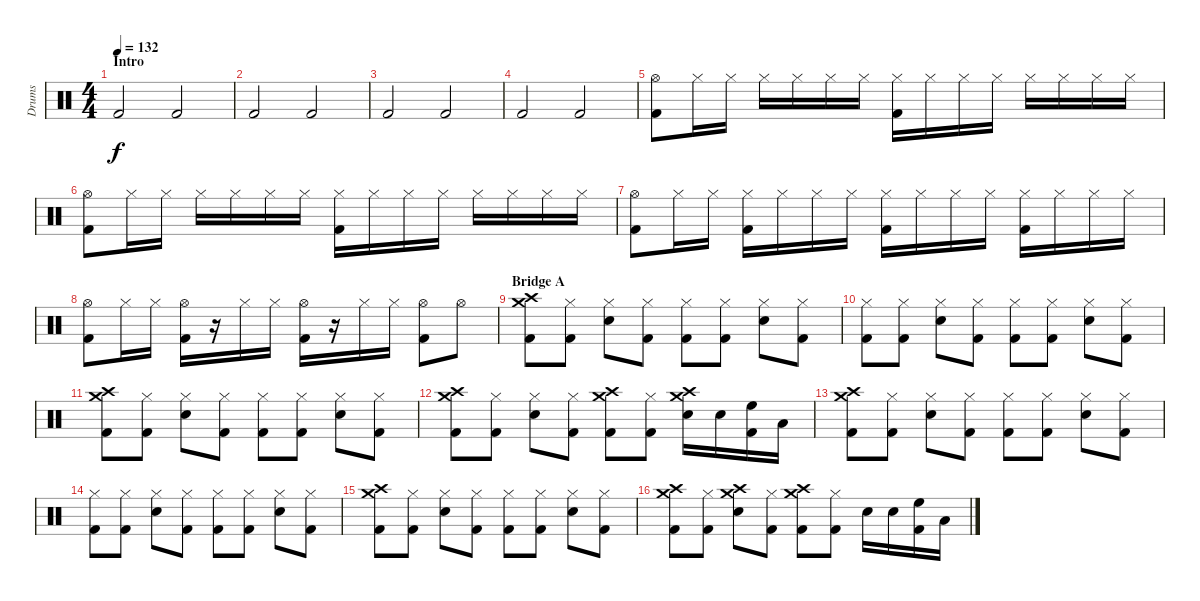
\track ("Drums" "Drums") {instrument percussion}
\staff {score}
\articulation defaults
\ts (4 4)
\section ("" "Intro")
\tempo 132
\clef neutral
\ks c "Kick (hit) 2".2{dy f} "Kick (hit) 2".2
|
"Kick (hit) 2".2 "Kick (hit) 2".2 |
"Kick (hit) 2".2 "Kick (hit) 2".2 |
"Kick (hit) 2".2 "Kick (hit) 2".2 |
("Hi-Hat (open)" "Kick (hit) 2").8 "Hi-Hat (closed)".16 "Hi-Hat (closed)".16 "Hi-Hat (closed)".16 "Hi-Hat (closed)".16 "Hi-Hat (closed)".16 "Hi-Hat (closed)".16 ("Hi-Hat (closed)" "Kick (hit) 2").16 "Hi-Hat (closed)".16 "Hi-Hat (closed)".16 "Hi-Hat (closed)".16 "Hi-Hat (closed)".16 "Hi-Hat (closed)".16 "Hi-Hat (closed)".16 "Hi-Hat (closed)".16 |
("Hi-Hat (open)" "Kick (hit) 2").8 "Hi-Hat (closed)".16 "Hi-Hat (closed)".16 "Hi-Hat (closed)".16 "Hi-Hat (closed)".16 "Hi-Hat (closed)".16 "Hi-Hat (closed)".16 ("Hi-Hat (closed)" "Kick (hit) 2").16 "Hi-Hat (closed)".16 "Hi-Hat (closed)".16 "Hi-Hat (closed)".16 "Hi-Hat (closed)".16 "Hi-Hat (closed)".16 "Hi-Hat (closed)".16 "Hi-Hat (closed)".16 |
("Hi-Hat (open)" "Kick (hit) 2").8 "Hi-Hat (closed)".16 "Hi-Hat (closed)".16 ("Hi-Hat (closed)" "Kick (hit) 2").16 "Hi-Hat (closed)".16 "Hi-Hat (closed)".16 "Hi-Hat (closed)".16 ("Hi-Hat (closed)" "Kick (hit) 2").16 "Hi-Hat (closed)".16 "Hi-Hat (closed)".16 "Hi-Hat (closed)".16 ("Hi-Hat (closed)" "Kick (hit) 2").16 "Hi-Hat (closed)".16 "Hi-Hat (closed)".16 "Hi-Hat (closed)".16 |
("Hi-Hat (open)" "Kick (hit) 2").8 "Hi-Hat (closed)".16 "Hi-Hat (closed)".16 ("Hi-Hat (open)" "Kick (hit) 2").16 r.16 "Hi-Hat (closed)".16 "Hi-Hat (closed)".16 ("Hi-Hat (open)" "Kick (hit) 2").16 r.16 "Hi-Hat (closed)".16 "Hi-Hat (closed)".16 ("Hi-Hat (open)" "Kick (hit) 2").8 "Hi-Hat (open)".8 |
\section ("" "Bridge A")
("Crash medium (hit)" "Crash high (hit)" "Kick (hit) 2").8 ("Hi-Hat (closed)" "Kick (hit) 2").8 ("Hi-Hat (closed)" "Electric Snare (hit)").8 ("Hi-Hat (closed)" "Kick (hit) 2").8 ("Hi-Hat (closed)" "Kick (hit) 2").8 ("Hi-Hat (closed)" "Kick (hit) 2").8 ("Hi-Hat (closed)" "Electric Snare (hit)").8 ("Hi-Hat (closed)" "Kick (hit) 2").8 |
("Hi-Hat (closed)" "Kick (hit) 2").8 ("Hi-Hat (closed)" "Kick (hit) 2").8 ("Hi-Hat (closed)" "Electric Snare (hit)").8 ("Hi-Hat (closed)" "Kick (hit) 2").8 ("Hi-Hat (closed)" "Kick (hit) 2").8 ("Hi-Hat (closed)" "Kick (hit) 2").8 ("Hi-Hat (closed)" "Electric Snare (hit)").8 ("Hi-Hat (closed)" "Kick (hit) 2").8 |
("Crash medium (hit)" "Crash high (hit)" "Kick (hit) 2").8 ("Hi-Hat (closed)" "Kick (hit) 2").8 ("Hi-Hat (closed)" "Electric Snare (hit)").8 ("Hi-Hat (closed)" "Kick (hit) 2").8 ("Hi-Hat (closed)" "Kick (hit) 2").8 ("Hi-Hat (closed)" "Kick (hit) 2").8 ("Hi-Hat (closed)" "Electric Snare (hit)").8 ("Hi-Hat (closed)" "Kick (hit) 2").8 |
("Crash medium (hit)" "Crash high (hit)" "Kick (hit) 2").8 ("Hi-Hat (closed)" "Kick (hit) 2").8 ("Hi-Hat (closed)" "Electric Snare (hit)").8 ("Hi-Hat (closed)" "Kick (hit) 2").8 ("Crash medium (hit)" "Crash high (hit)" "Kick (hit) 2").8 ("Hi-Hat (closed)" "Kick (hit) 2").8 ("Crash medium (hit)" "Crash high (hit)" "Electric Snare (hit)").16 "Electric Snare (hit)".16 ("High Floor Tom (hit)" "Kick (hit) 2").16 "Low Tom (hit)".16 |
("Crash medium (hit)" "Crash high (hit)" "Kick (hit) 2").8 ("Hi-Hat (closed)" "Kick (hit) 2").8 ("Hi-Hat (closed)" "Electric Snare (hit)").8 ("Hi-Hat (closed)" "Kick (hit) 2").8 ("Hi-Hat (closed)" "Kick (hit) 2").8 ("Hi-Hat (closed)" "Kick (hit) 2").8 ("Hi-Hat (closed)" "Electric Snare (hit)").8 ("Hi-Hat (closed)" "Kick (hit) 2").8 |
("Hi-Hat (closed)" "Kick (hit) 2").8 ("Hi-Hat (closed)" "Kick (hit) 2").8 ("Hi-Hat (closed)" "Electric Snare (hit)").8 ("Hi-Hat (closed)" "Kick (hit) 2").8 ("Hi-Hat (closed)" "Kick (hit) 2").8 ("Hi-Hat (closed)" "Kick (hit) 2").8 ("Hi-Hat (closed)" "Electric Snare (hit)").8 ("Hi-Hat (closed)" "Kick (hit) 2").8 |
("Crash medium (hit)" "Crash high (hit)" "Kick (hit) 2").8 ("Hi-Hat (closed)" "Kick (hit) 2").8 ("Hi-Hat (closed)" "Electric Snare (hit)").8 ("Hi-Hat (closed)" "Kick (hit) 2").8 ("Hi-Hat (closed)" "Kick (hit) 2").8 ("Hi-Hat (closed)" "Kick (hit) 2").8 ("Hi-Hat (closed)" "Electric Snare (hit)").8 ("Hi-Hat (closed)" "Kick (hit) 2").8 |
("Crash medium (hit)" "Crash high (hit)" "Kick (hit) 2").8 ("Hi-Hat (closed)" "Kick (hit) 2").8 ("Crash medium (hit)" "Crash high (hit)" "Electric Snare (hit)").8 ("Hi-Hat (closed)" "Kick (hit) 2").8 ("Crash medium (hit)" "Crash high (hit)" "Kick (hit) 2").8 ("Hi-Hat (closed)" "Kick (hit) 2").8 "Electric Snare (hit)".16 "Electric Snare (hit)".16 ("High Floor Tom (hit)" "Kick (hit) 2").16 "Low Tom (hit)".16
